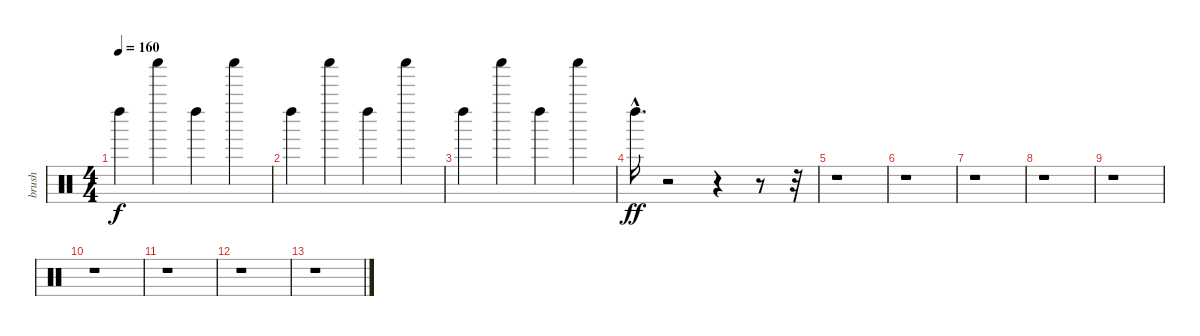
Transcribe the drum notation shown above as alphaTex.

\track ("brush" "brush") {instrument percussion}
\staff {score}
\articulation defaults
\ts (4 4)
\tempo 160
\clef neutral
\ks c "Left Maraca (hit)".4{dy f} "Shaker (hit)".4 "Left Maraca (hit)".4 "Shaker (hit)".4
|
"Left Maraca (hit)".4 "Shaker (hit)".4 "Left Maraca (hit)".4 "Shaker (hit)".4 |
"Left Maraca (hit)".4 "Shaker (hit)".4 "Left Maraca (hit)".4 "Shaker (hit)".4 |
"Left Maraca (hit)"{hac}.16{d dy ff} r.2 r.4 r.8 r.32 |
r.1 |
r.1 |
r.1 |
r.1 |
r.1 |
r.1 |
r.1 |
r.1 |
r.1
